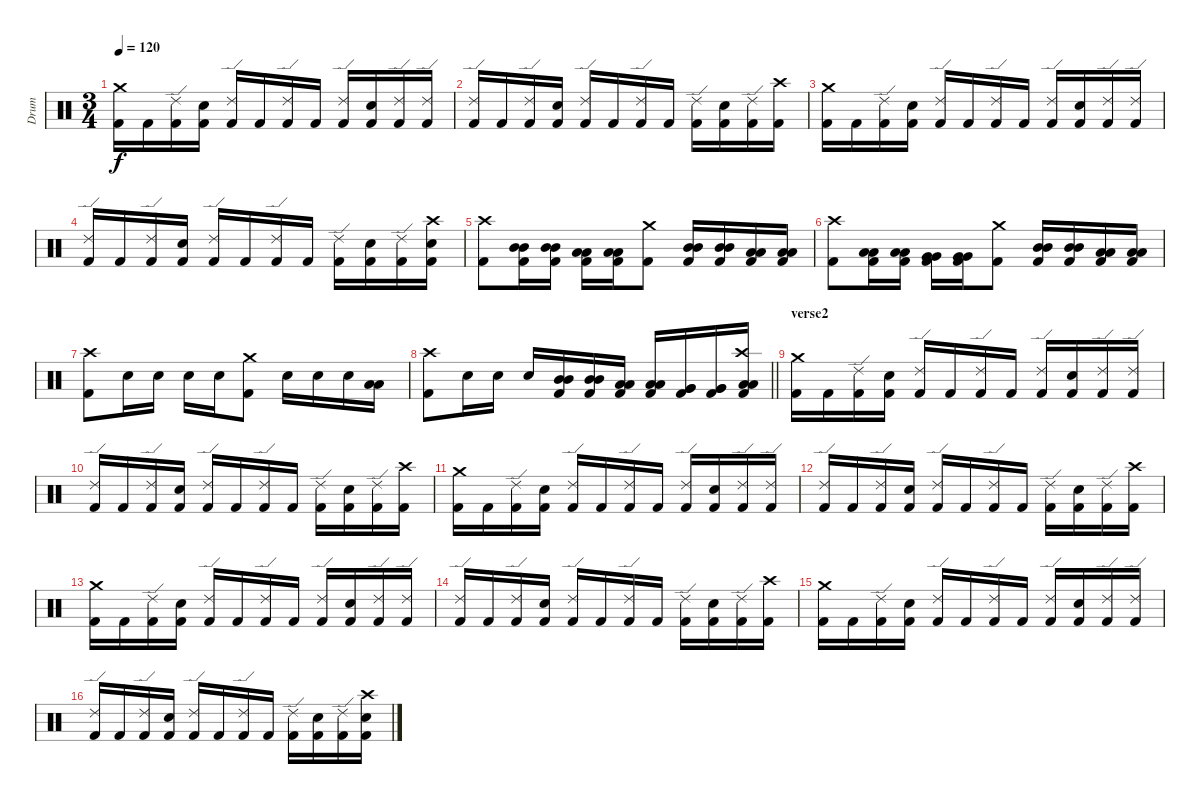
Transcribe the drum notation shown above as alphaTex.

\track ("Drum" "Drum") {instrument percussion}
\staff {score}
\articulation defaults
\ts (3 4)
\tempo 120
\clef neutral
\ks c
("Crash medium (hit)" "Kick (hit) 2").16{dy f} "Kick (hit) 2".16 ("Ride (edge) 2" "Kick (hit) 2").16 ("Snare (hit) 2" "Kick (hit) 2").16 ("Ride (edge) 2" "Kick (hit) 2").16 "Kick (hit) 2".16 ("Ride (edge) 2" "Kick (hit) 2").16 "Kick (hit) 2".16 ("Ride (edge) 2" "Kick (hit) 2").16 ("Snare (hit) 2" "Kick (hit) 2").16 ("Ride (edge) 2" "Kick (hit) 2").16 ("Ride (edge) 2" "Kick (hit) 2").16 |
("Ride (edge) 2" "Kick (hit) 2").16 "Kick (hit) 2".16 ("Ride (edge) 2" "Kick (hit) 2").16 ("Snare (hit) 2" "Kick (hit) 2").16 ("Ride (edge) 2" "Kick (hit) 2").16 "Kick (hit) 2".16 ("Ride (edge) 2" "Kick (hit) 2").16 "Kick (hit) 2".16 ("Ride (edge) 2" "Kick (hit) 2").16 ("Snare (hit) 2" "Kick (hit) 2").16 ("Ride (edge) 2" "Kick (hit) 2").16 ("Crash high (hit)" "Kick (hit) 2").16 |
("Crash medium (hit)" "Kick (hit) 2").16 "Kick (hit) 2".16 ("Ride (edge) 2" "Kick (hit) 2").16 ("Snare (hit) 2" "Kick (hit) 2").16 ("Ride (edge) 2" "Kick (hit) 2").16 "Kick (hit) 2".16 ("Ride (edge) 2" "Kick (hit) 2").16 "Kick (hit) 2".16 ("Ride (edge) 2" "Kick (hit) 2").16 ("Snare (hit) 2" "Kick (hit) 2").16 ("Ride (edge) 2" "Kick (hit) 2").16 ("Ride (edge) 2" "Kick (hit) 2").16 |
("Ride (edge) 2" "Kick (hit) 2").16 "Kick (hit) 2".16 ("Ride (edge) 2" "Kick (hit) 2").16 ("Snare (hit) 2" "Kick (hit) 2").16 ("Ride (edge) 2" "Kick (hit) 2").16 "Kick (hit) 2".16 ("Ride (edge) 2" "Kick (hit) 2").16 "Kick (hit) 2".16 ("Ride (edge) 2" "Kick (hit) 2").16 ("Snare (hit) 2" "Kick (hit) 2").16 ("Ride (edge) 2" "Kick (hit) 2").16 ("Crash high (hit)" "Snare (hit) 2" "Kick (hit) 2").16 |
("Crash high (hit)" "Kick (hit) 2").8 ("Mid Tom (hit)" "Mid Tom (hit)" "Kick (hit) 2").16 ("Mid Tom (hit)" "Mid Tom (hit)" "Kick (hit) 2").16 ("Low Tom (hit)" "Low Tom (hit)" "Kick (hit) 2").16 ("Low Tom (hit)" "Low Tom (hit)" "Kick (hit) 2").16 ("Crash medium (hit)" "Kick (hit) 2").8 ("Mid Tom (hit)" "Mid Tom (hit)" "Kick (hit) 2").16 ("Mid Tom (hit)" "Mid Tom (hit)" "Kick (hit) 2").16 ("Low Tom (hit)" "Low Tom (hit)" "Kick (hit) 2").16 ("Low Tom (hit)" "Low Tom (hit)" "Kick (hit) 2").16 |
("Crash high (hit)" "Kick (hit) 2").8 ("Low Tom (hit)" "Low Tom (hit)" "Kick (hit) 2").16 ("Low Tom (hit)" "Low Tom (hit)" "Kick (hit) 2").16 ("Very Low Tom (hit)" "Very Low Tom (hit)" "Kick (hit) 2").16 ("Very Low Tom (hit)" "Very Low Tom (hit)" "Kick (hit) 2").16 ("Crash medium (hit)" "Kick (hit) 2").8 ("Mid Tom (hit)" "Mid Tom (hit)" "Kick (hit) 2").16 ("Mid Tom (hit)" "Mid Tom (hit)" "Kick (hit) 2").16 ("Low Tom (hit)" "Low Tom (hit)" "Kick (hit) 2").16 ("Low Tom (hit)" "Low Tom (hit)" "Kick (hit) 2").16 |
("Crash high (hit)" "Kick (hit) 2").8 "Snare (hit) 2".16 "Snare (hit) 2".16 "Snare (hit) 2".16 "Snare (hit) 2".16 ("Crash medium (hit)" "Kick (hit) 2").8 "Snare (hit) 2".16 "Snare (hit) 2".16 "Snare (hit) 2".16 ("Low Tom (hit)" "Low Tom (hit)").16 |
\barLineRight lightlight
("Crash high (hit)" "Kick (hit) 2").8 "Snare (hit) 2".16 "Snare (hit) 2".16 "Snare (hit) 2".16 ("Mid Tom (hit)" "Mid Tom (hit)" "Kick (hit) 2").16 ("Mid Tom (hit)" "Mid Tom (hit)" "Kick (hit) 2").16 ("Low Tom (hit)" "Low Tom (hit)" "Kick (hit) 2").16 ("Low Tom (hit)" "Low Tom (hit)" "Kick (hit) 2").16 ("Very Low Tom (hit)" "Very Low Tom (hit)" "Kick (hit) 2").16 ("Very Low Tom (hit)" "Very Low Tom (hit)" "Kick (hit) 2").16 ("Crash high (hit)" "Low Floor Tom (hit)" "Low Floor Tom (hit)" "Kick (hit) 2").16 |
\section ("" "verse2")
("Crash medium (hit)" "Kick (hit) 2").16 "Kick (hit) 2".16 ("Ride (edge) 2" "Kick (hit) 2").16 ("Snare (hit) 2" "Kick (hit) 2").16 ("Ride (edge) 2" "Kick (hit) 2").16 "Kick (hit) 2".16 ("Ride (edge) 2" "Kick (hit) 2").16 "Kick (hit) 2".16 ("Ride (edge) 2" "Kick (hit) 2").16 ("Snare (hit) 2" "Kick (hit) 2").16 ("Ride (edge) 2" "Kick (hit) 2").16 ("Ride (edge) 2" "Kick (hit) 2").16 |
("Ride (edge) 2" "Kick (hit) 2").16 "Kick (hit) 2".16 ("Ride (edge) 2" "Kick (hit) 2").16 ("Snare (hit) 2" "Kick (hit) 2").16 ("Ride (edge) 2" "Kick (hit) 2").16 "Kick (hit) 2".16 ("Ride (edge) 2" "Kick (hit) 2").16 "Kick (hit) 2".16 ("Ride (edge) 2" "Kick (hit) 2").16 ("Snare (hit) 2" "Kick (hit) 2").16 ("Ride (edge) 2" "Kick (hit) 2").16 ("Crash high (hit)" "Kick (hit) 2").16 |
("Crash medium (hit)" "Kick (hit) 2").16 "Kick (hit) 2".16 ("Ride (edge) 2" "Kick (hit) 2").16 ("Snare (hit) 2" "Kick (hit) 2").16 ("Ride (edge) 2" "Kick (hit) 2").16 "Kick (hit) 2".16 ("Ride (edge) 2" "Kick (hit) 2").16 "Kick (hit) 2".16 ("Ride (edge) 2" "Kick (hit) 2").16 ("Snare (hit) 2" "Kick (hit) 2").16 ("Ride (edge) 2" "Kick (hit) 2").16 ("Ride (edge) 2" "Kick (hit) 2").16 |
("Ride (edge) 2" "Kick (hit) 2").16 "Kick (hit) 2".16 ("Ride (edge) 2" "Kick (hit) 2").16 ("Snare (hit) 2" "Kick (hit) 2").16 ("Ride (edge) 2" "Kick (hit) 2").16 "Kick (hit) 2".16 ("Ride (edge) 2" "Kick (hit) 2").16 "Kick (hit) 2".16 ("Ride (edge) 2" "Kick (hit) 2").16 ("Snare (hit) 2" "Kick (hit) 2").16 ("Ride (edge) 2" "Kick (hit) 2").16 ("Crash high (hit)" "Kick (hit) 2").16 |
("Crash medium (hit)" "Kick (hit) 2").16 "Kick (hit) 2".16 ("Ride (edge) 2" "Kick (hit) 2").16 ("Snare (hit) 2" "Kick (hit) 2").16 ("Ride (edge) 2" "Kick (hit) 2").16 "Kick (hit) 2".16 ("Ride (edge) 2" "Kick (hit) 2").16 "Kick (hit) 2".16 ("Ride (edge) 2" "Kick (hit) 2").16 ("Snare (hit) 2" "Kick (hit) 2").16 ("Ride (edge) 2" "Kick (hit) 2").16 ("Ride (edge) 2" "Kick (hit) 2").16 |
("Ride (edge) 2" "Kick (hit) 2").16 "Kick (hit) 2".16 ("Ride (edge) 2" "Kick (hit) 2").16 ("Snare (hit) 2" "Kick (hit) 2").16 ("Ride (edge) 2" "Kick (hit) 2").16 "Kick (hit) 2".16 ("Ride (edge) 2" "Kick (hit) 2").16 "Kick (hit) 2".16 ("Ride (edge) 2" "Kick (hit) 2").16 ("Snare (hit) 2" "Kick (hit) 2").16 ("Ride (edge) 2" "Kick (hit) 2").16 ("Crash high (hit)" "Kick (hit) 2").16 |
("Crash medium (hit)" "Kick (hit) 2").16 "Kick (hit) 2".16 ("Ride (edge) 2" "Kick (hit) 2").16 ("Snare (hit) 2" "Kick (hit) 2").16 ("Ride (edge) 2" "Kick (hit) 2").16 "Kick (hit) 2".16 ("Ride (edge) 2" "Kick (hit) 2").16 "Kick (hit) 2".16 ("Ride (edge) 2" "Kick (hit) 2").16 ("Snare (hit) 2" "Kick (hit) 2").16 ("Ride (edge) 2" "Kick (hit) 2").16 ("Ride (edge) 2" "Kick (hit) 2").16 |
("Ride (edge) 2" "Kick (hit) 2").16 "Kick (hit) 2".16 ("Ride (edge) 2" "Kick (hit) 2").16 ("Snare (hit) 2" "Kick (hit) 2").16 ("Ride (edge) 2" "Kick (hit) 2").16 "Kick (hit) 2".16 ("Ride (edge) 2" "Kick (hit) 2").16 "Kick (hit) 2".16 ("Ride (edge) 2" "Kick (hit) 2").16 ("Snare (hit) 2" "Kick (hit) 2").16 ("Ride (edge) 2" "Kick (hit) 2").16 ("Crash high (hit)" "Snare (hit) 2" "Kick (hit) 2").16
